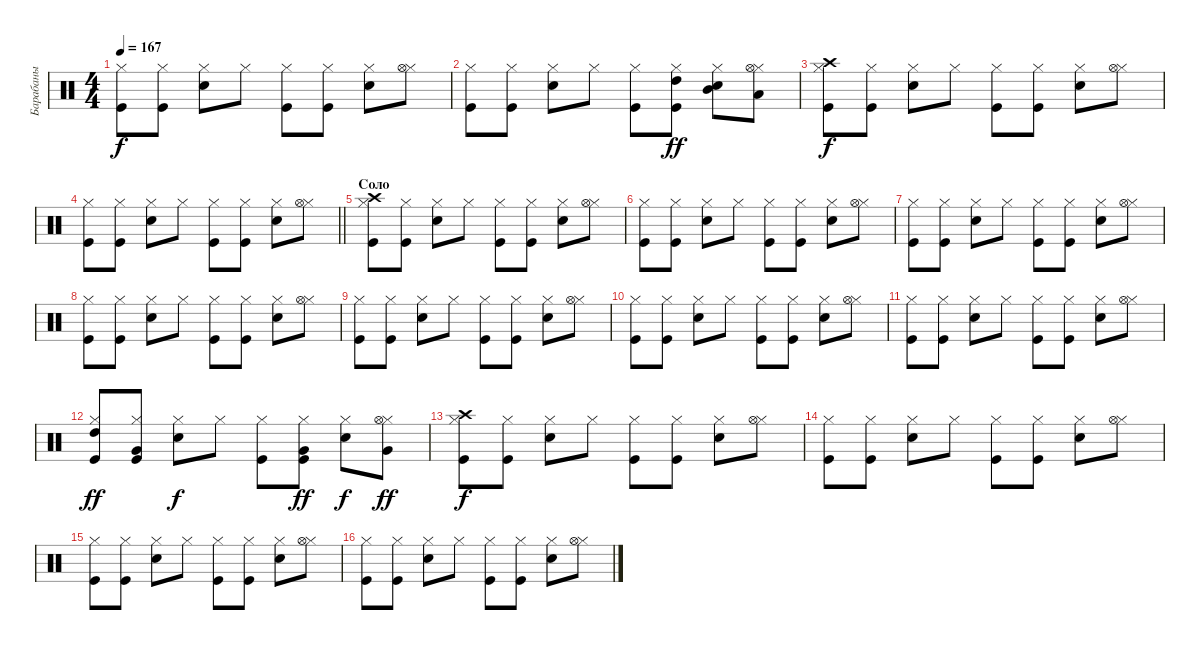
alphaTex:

\track ("Барабаны" "Барабаны") {instrument percussion}
\staff {score}
\articulation defaults
\ts (4 4)
\tempo 167
\clef neutral
\ks c
("Kick (hit)" "Hi-Hat (closed)").8{dy f} ("Kick (hit)" "Hi-Hat (closed)").8 ("Snare (hit) 2" "Hi-Hat (closed)").8 "Hi-Hat (closed)".8 ("Kick (hit)" "Hi-Hat (closed)").8 ("Kick (hit)" "Hi-Hat (closed)").8 ("Snare (hit) 2" "Hi-Hat (closed)").8 ("Hi-Hat (closed)" "Hi-Hat (open)").8 |
("Kick (hit)" "Hi-Hat (closed)").8 ("Kick (hit)" "Hi-Hat (closed)").8 ("Snare (hit) 2" "Hi-Hat (closed)").8 "Hi-Hat (closed)".8 ("Kick (hit)" "Hi-Hat (closed)").8 ("Kick (hit)" "Hi-Hat (closed)" "High Tom (hit)").8{dy ff} ("Snare (hit) 2" "Hi-Hat (closed)" "Mid Tom (hit)").8 ("Hi-Hat (closed)" "Hi-Hat (open)" "Low Tom (hit)").8 |
("Kick (hit)" "Hi-Hat (closed)" "Crash high (hit)").8{dy f} ("Kick (hit)" "Hi-Hat (closed)").8 ("Snare (hit) 2" "Hi-Hat (closed)").8 "Hi-Hat (closed)".8 ("Kick (hit)" "Hi-Hat (closed)").8 ("Kick (hit)" "Hi-Hat (closed)").8 ("Snare (hit) 2" "Hi-Hat (closed)").8 ("Hi-Hat (closed)" "Hi-Hat (open)").8 |
\barLineRight lightlight
("Kick (hit)" "Hi-Hat (closed)").8 ("Kick (hit)" "Hi-Hat (closed)").8 ("Snare (hit) 2" "Hi-Hat (closed)").8 "Hi-Hat (closed)".8 ("Kick (hit)" "Hi-Hat (closed)").8 ("Kick (hit)" "Hi-Hat (closed)").8 ("Snare (hit) 2" "Hi-Hat (closed)").8 ("Hi-Hat (closed)" "Hi-Hat (open)").8 |
\section ("" "Соло")
("Kick (hit)" "Hi-Hat (closed)" "Crash high (hit)").8 ("Kick (hit)" "Hi-Hat (closed)").8 ("Snare (hit) 2" "Hi-Hat (closed)").8 "Hi-Hat (closed)".8 ("Kick (hit)" "Hi-Hat (closed)").8 ("Kick (hit)" "Hi-Hat (closed)").8 ("Snare (hit) 2" "Hi-Hat (closed)").8 ("Hi-Hat (closed)" "Hi-Hat (open)").8 |
("Kick (hit)" "Hi-Hat (closed)").8 ("Kick (hit)" "Hi-Hat (closed)").8 ("Snare (hit) 2" "Hi-Hat (closed)").8 "Hi-Hat (closed)".8 ("Kick (hit)" "Hi-Hat (closed)").8 ("Kick (hit)" "Hi-Hat (closed)").8 ("Snare (hit) 2" "Hi-Hat (closed)").8 ("Hi-Hat (closed)" "Hi-Hat (open)").8 |
("Kick (hit)" "Hi-Hat (closed)").8 ("Kick (hit)" "Hi-Hat (closed)").8 ("Snare (hit) 2" "Hi-Hat (closed)").8 "Hi-Hat (closed)".8 ("Kick (hit)" "Hi-Hat (closed)").8 ("Kick (hit)" "Hi-Hat (closed)").8 ("Snare (hit) 2" "Hi-Hat (closed)").8 ("Hi-Hat (closed)" "Hi-Hat (open)").8 |
("Kick (hit)" "Hi-Hat (closed)").8 ("Kick (hit)" "Hi-Hat (closed)").8 ("Snare (hit) 2" "Hi-Hat (closed)").8 "Hi-Hat (closed)".8 ("Kick (hit)" "Hi-Hat (closed)").8 ("Kick (hit)" "Hi-Hat (closed)").8 ("Snare (hit) 2" "Hi-Hat (closed)").8 ("Hi-Hat (closed)" "Hi-Hat (open)").8 |
("Kick (hit)" "Hi-Hat (closed)").8 ("Kick (hit)" "Hi-Hat (closed)").8 ("Snare (hit) 2" "Hi-Hat (closed)").8 "Hi-Hat (closed)".8 ("Kick (hit)" "Hi-Hat (closed)").8 ("Kick (hit)" "Hi-Hat (closed)").8 ("Snare (hit) 2" "Hi-Hat (closed)").8 ("Hi-Hat (closed)" "Hi-Hat (open)").8 |
("Kick (hit)" "Hi-Hat (closed)").8 ("Kick (hit)" "Hi-Hat (closed)").8 ("Snare (hit) 2" "Hi-Hat (closed)").8 "Hi-Hat (closed)".8 ("Kick (hit)" "Hi-Hat (closed)").8 ("Kick (hit)" "Hi-Hat (closed)").8 ("Snare (hit) 2" "Hi-Hat (closed)").8 ("Hi-Hat (closed)" "Hi-Hat (open)").8 |
("Kick (hit)" "Hi-Hat (closed)").8 ("Kick (hit)" "Hi-Hat (closed)").8 ("Snare (hit) 2" "Hi-Hat (closed)").8 "Hi-Hat (closed)".8 ("Kick (hit)" "Hi-Hat (closed)").8 ("Kick (hit)" "Hi-Hat (closed)").8 ("Snare (hit) 2" "Hi-Hat (closed)").8 ("Hi-Hat (closed)" "Hi-Hat (open)").8 |
("Kick (hit)" "Hi-Hat (closed)" "High Tom (hit)").8{dy ff} ("Kick (hit)" "Hi-Hat (closed)" "Very Low Tom (hit)").8 ("Snare (hit) 2" "Hi-Hat (closed)").8{dy f} "Hi-Hat (closed)".8 ("Kick (hit)" "Hi-Hat (closed)").8 ("Kick (hit)" "Hi-Hat (closed)" "Very Low Tom (hit)").8{dy ff} ("Snare (hit) 2" "Hi-Hat (closed)").8{dy f} ("Hi-Hat (closed)" "Hi-Hat (open)" "Very Low Tom (hit)").8{dy ff} |
("Kick (hit)" "Hi-Hat (closed)" "Crash high (hit)").8{dy f} ("Kick (hit)" "Hi-Hat (closed)").8 ("Snare (hit) 2" "Hi-Hat (closed)").8 "Hi-Hat (closed)".8 ("Kick (hit)" "Hi-Hat (closed)").8 ("Kick (hit)" "Hi-Hat (closed)").8 ("Snare (hit) 2" "Hi-Hat (closed)").8 ("Hi-Hat (closed)" "Hi-Hat (open)").8 |
("Kick (hit)" "Hi-Hat (closed)").8 ("Kick (hit)" "Hi-Hat (closed)").8 ("Snare (hit) 2" "Hi-Hat (closed)").8 "Hi-Hat (closed)".8 ("Kick (hit)" "Hi-Hat (closed)").8 ("Kick (hit)" "Hi-Hat (closed)").8 ("Snare (hit) 2" "Hi-Hat (closed)").8 ("Hi-Hat (closed)" "Hi-Hat (open)").8 |
("Kick (hit)" "Hi-Hat (closed)").8 ("Kick (hit)" "Hi-Hat (closed)").8 ("Snare (hit) 2" "Hi-Hat (closed)").8 "Hi-Hat (closed)".8 ("Kick (hit)" "Hi-Hat (closed)").8 ("Kick (hit)" "Hi-Hat (closed)").8 ("Snare (hit) 2" "Hi-Hat (closed)").8 ("Hi-Hat (closed)" "Hi-Hat (open)").8 |
("Kick (hit)" "Hi-Hat (closed)").8 ("Kick (hit)" "Hi-Hat (closed)").8 ("Snare (hit) 2" "Hi-Hat (closed)").8 "Hi-Hat (closed)".8 ("Kick (hit)" "Hi-Hat (closed)").8 ("Kick (hit)" "Hi-Hat (closed)").8 ("Snare (hit) 2" "Hi-Hat (closed)").8 ("Hi-Hat (closed)" "Hi-Hat (open)").8
